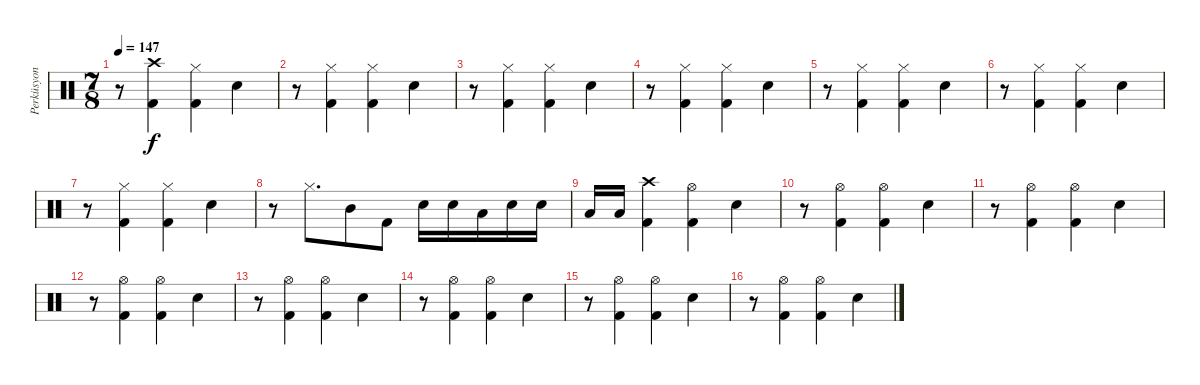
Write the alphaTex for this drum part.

\track ("Perküsyon" "Perküsyon") {instrument percussion}
\staff {score}
\articulation defaults
\ts (7 8)
\tempo 147
\clef neutral
\ks c
r.8{dy f} ("Crash high (hit)" "Kick (hit) 2").4 ("Hi-Hat (closed)" "Kick (hit) 2").4 "Electric Snare (hit)".4 |
r.8 ("Hi-Hat (closed)" "Kick (hit) 2").4 ("Hi-Hat (closed)" "Kick (hit) 2").4 "Electric Snare (hit)".4 |
r.8 ("Hi-Hat (closed)" "Kick (hit) 2").4 ("Hi-Hat (closed)" "Kick (hit) 2").4 "Electric Snare (hit)".4 |
r.8 ("Hi-Hat (closed)" "Kick (hit) 2").4 ("Hi-Hat (closed)" "Kick (hit) 2").4 "Electric Snare (hit)".4 |
r.8 ("Hi-Hat (closed)" "Kick (hit) 2").4 ("Hi-Hat (closed)" "Kick (hit) 2").4 "Electric Snare (hit)".4 |
r.8 ("Hi-Hat (closed)" "Kick (hit) 2").4 ("Hi-Hat (closed)" "Kick (hit) 2").4 "Electric Snare (hit)".4 |
r.8 ("Hi-Hat (closed)" "Kick (hit) 2").4 ("Hi-Hat (closed)" "Kick (hit) 2").4 "Electric Snare (hit)".4 |
r.8 "Hi-Hat (closed)".8{d} "Mid Tom (hit)".8 "Kick (hit) 2".8 "Electric Snare (hit)".16 "Electric Snare (hit)".16 "Low Floor Tom (hit)".16 "Electric Snare (hit)".16 "Electric Snare (hit)".16 |
"Low Floor Tom (hit)".16 "Low Floor Tom (hit)".16 ("Crash high (hit)" "Kick (hit) 2").4 ("Hi-Hat (open)" "Kick (hit) 2").4 "Electric Snare (hit)".4 |
r.8 ("Hi-Hat (open)" "Kick (hit) 2").4 ("Hi-Hat (open)" "Kick (hit) 2").4 "Electric Snare (hit)".4 |
r.8 ("Hi-Hat (open)" "Kick (hit) 2").4 ("Hi-Hat (open)" "Kick (hit) 2").4 "Electric Snare (hit)".4 |
r.8 ("Hi-Hat (open)" "Kick (hit) 2").4 ("Hi-Hat (open)" "Kick (hit) 2").4 "Electric Snare (hit)".4 |
r.8 ("Hi-Hat (open)" "Kick (hit) 2").4 ("Hi-Hat (open)" "Kick (hit) 2").4 "Electric Snare (hit)".4 |
r.8 ("Hi-Hat (open)" "Kick (hit) 2").4 ("Hi-Hat (open)" "Kick (hit) 2").4 "Electric Snare (hit)".4 |
r.8 ("Hi-Hat (open)" "Kick (hit) 2").4 ("Hi-Hat (open)" "Kick (hit) 2").4 "Electric Snare (hit)".4 |
r.8 ("Hi-Hat (open)" "Kick (hit) 2").4 ("Hi-Hat (open)" "Kick (hit) 2").4 "Electric Snare (hit)".4
